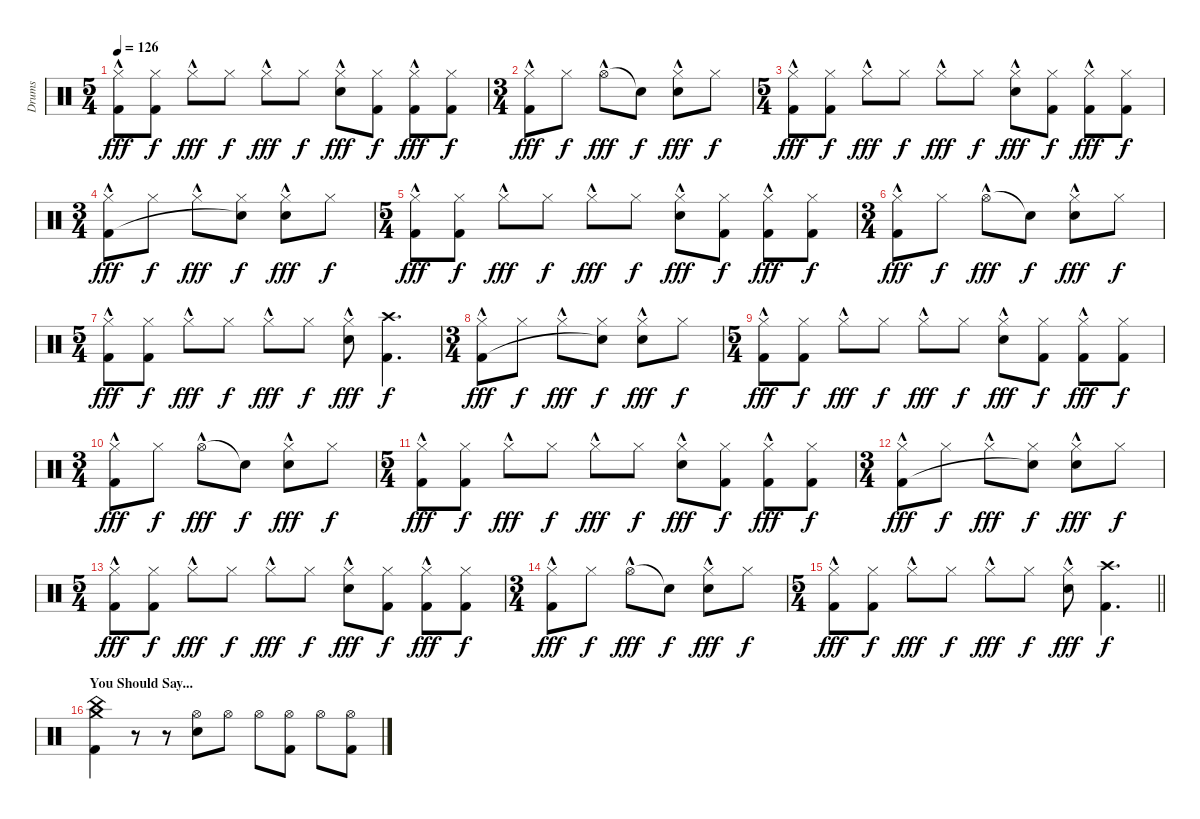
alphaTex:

\track ("Drums" "Drums") {instrument percussion}
\staff {score}
\articulation defaults
\ts (5 4)
\tempo 126
\clef neutral
\ks c
("Hi-Hat (closed)"{hac} "Kick (hit) 2").8{dy fff} ("Hi-Hat (closed)" "Kick (hit) 2").8{dy f} "Hi-Hat (closed)"{hac}.8{dy fff} "Hi-Hat (closed)".8{dy f} "Hi-Hat (closed)"{hac}.8{dy fff} "Hi-Hat (closed)".8{dy f} ("Hi-Hat (closed)"{hac} "Snare (hit) 2"{hac}).8{dy fff} ("Hi-Hat (closed)" "Kick (hit) 2").8{dy f} ("Hi-Hat (closed)"{hac} "Kick (hit) 2").8{dy fff} ("Hi-Hat (closed)" "Kick (hit) 2").8{dy f} |
\ts (3 4)
("Hi-Hat (closed)"{hac} "Kick (hit) 2").8{dy fff} "Hi-Hat (closed)".8{dy f} "Hi-Hat (open)"{hac}.8{dy fff} "Snare (hit)"{t}.8{dy f} ("Hi-Hat (closed)"{hac} "Snare (hit) 2"{hac}).8{dy fff} "Hi-Hat (closed)".8{dy f} |
\ts (5 4)
("Hi-Hat (closed)"{hac} "Kick (hit) 2").8{dy fff} ("Hi-Hat (closed)" "Kick (hit) 2").8{dy f} "Hi-Hat (closed)"{hac}.8{dy fff} "Hi-Hat (closed)".8{dy f} "Hi-Hat (closed)"{hac}.8{dy fff} "Hi-Hat (closed)".8{dy f} ("Hi-Hat (closed)"{hac} "Snare (hit) 2"{hac}).8{dy fff} ("Hi-Hat (closed)" "Kick (hit) 2").8{dy f} ("Hi-Hat (closed)"{hac} "Kick (hit) 2").8{dy fff} ("Hi-Hat (closed)" "Kick (hit) 2").8{dy f} |
\ts (3 4)
("Hi-Hat (closed)"{hac} "Kick (hit) 2").8{dy fff} "Hi-Hat (closed)".8{dy f} "Hi-Hat (closed)"{hac}.8{dy fff} ("Hi-Hat (closed)" "Snare (hit)"{t}).8{dy f} ("Hi-Hat (closed)"{hac} "Snare (hit) 2"{hac}).8{dy fff} "Hi-Hat (closed)".8{dy f} |
\ts (5 4)
("Hi-Hat (closed)"{hac} "Kick (hit) 2").8{dy fff} ("Hi-Hat (closed)" "Kick (hit) 2").8{dy f} "Hi-Hat (closed)"{hac}.8{dy fff} "Hi-Hat (closed)".8{dy f} "Hi-Hat (closed)"{hac}.8{dy fff} "Hi-Hat (closed)".8{dy f} ("Hi-Hat (closed)"{hac} "Snare (hit) 2"{hac}).8{dy fff} ("Hi-Hat (closed)" "Kick (hit) 2").8{dy f} ("Hi-Hat (closed)"{hac} "Kick (hit) 2").8{dy fff} ("Hi-Hat (closed)" "Kick (hit) 2").8{dy f} |
\ts (3 4)
("Hi-Hat (closed)"{hac} "Kick (hit) 2").8{dy fff} "Hi-Hat (closed)".8{dy f} "Hi-Hat (open)"{hac}.8{dy fff} "Snare (hit)"{t}.8{dy f} ("Hi-Hat (closed)"{hac} "Snare (hit) 2"{hac}).8{dy fff} "Hi-Hat (closed)".8{dy f} |
\ts (5 4)
("Hi-Hat (closed)"{hac} "Kick (hit) 2").8{dy fff} ("Hi-Hat (closed)" "Kick (hit) 2").8{dy f} "Hi-Hat (closed)"{hac}.8{dy fff} "Hi-Hat (closed)".8{dy f} "Hi-Hat (closed)"{hac}.8{dy fff} "Hi-Hat (closed)".8{dy f} ("Hi-Hat (closed)"{hac} "Snare (hit) 2"{hac}).8{dy fff} ("Crash high (hit)" "Kick (hit) 2").4{d dy f} |
\ts (3 4)
("Hi-Hat (closed)"{hac} "Kick (hit) 2").8{dy fff} "Hi-Hat (closed)".8{dy f} "Hi-Hat (closed)"{hac}.8{dy fff} ("Hi-Hat (closed)" "Snare (hit)"{t}).8{dy f} ("Hi-Hat (closed)"{hac} "Snare (hit) 2"{hac}).8{dy fff} "Hi-Hat (closed)".8{dy f} |
\ts (5 4)
("Hi-Hat (closed)"{hac} "Kick (hit) 2").8{dy fff} ("Hi-Hat (closed)" "Kick (hit) 2").8{dy f} "Hi-Hat (closed)"{hac}.8{dy fff} "Hi-Hat (closed)".8{dy f} "Hi-Hat (closed)"{hac}.8{dy fff} "Hi-Hat (closed)".8{dy f} ("Hi-Hat (closed)"{hac} "Snare (hit) 2"{hac}).8{dy fff} ("Hi-Hat (closed)" "Kick (hit) 2").8{dy f} ("Hi-Hat (closed)"{hac} "Kick (hit) 2").8{dy fff} ("Hi-Hat (closed)" "Kick (hit) 2").8{dy f} |
\ts (3 4)
("Hi-Hat (closed)"{hac} "Kick (hit) 2").8{dy fff} "Hi-Hat (closed)".8{dy f} "Hi-Hat (open)"{hac}.8{dy fff} "Snare (hit)"{t}.8{dy f} ("Hi-Hat (closed)"{hac} "Snare (hit) 2"{hac}).8{dy fff} "Hi-Hat (closed)".8{dy f} |
\ts (5 4)
("Hi-Hat (closed)"{hac} "Kick (hit) 2").8{dy fff} ("Hi-Hat (closed)" "Kick (hit) 2").8{dy f} "Hi-Hat (closed)"{hac}.8{dy fff} "Hi-Hat (closed)".8{dy f} "Hi-Hat (closed)"{hac}.8{dy fff} "Hi-Hat (closed)".8{dy f} ("Hi-Hat (closed)"{hac} "Snare (hit) 2"{hac}).8{dy fff} ("Hi-Hat (closed)" "Kick (hit) 2").8{dy f} ("Hi-Hat (closed)"{hac} "Kick (hit) 2").8{dy fff} ("Hi-Hat (closed)" "Kick (hit) 2").8{dy f} |
\ts (3 4)
("Hi-Hat (closed)"{hac} "Kick (hit) 2").8{dy fff} "Hi-Hat (closed)".8{dy f} "Hi-Hat (closed)"{hac}.8{dy fff} ("Hi-Hat (closed)" "Snare (hit)"{t}).8{dy f} ("Hi-Hat (closed)"{hac} "Snare (hit) 2"{hac}).8{dy fff} "Hi-Hat (closed)".8{dy f} |
\ts (5 4)
("Hi-Hat (closed)"{hac} "Kick (hit) 2").8{dy fff} ("Hi-Hat (closed)" "Kick (hit) 2").8{dy f} "Hi-Hat (closed)"{hac}.8{dy fff} "Hi-Hat (closed)".8{dy f} "Hi-Hat (closed)"{hac}.8{dy fff} "Hi-Hat (closed)".8{dy f} ("Hi-Hat (closed)"{hac} "Snare (hit) 2"{hac}).8{dy fff} ("Hi-Hat (closed)" "Kick (hit) 2").8{dy f} ("Hi-Hat (closed)"{hac} "Kick (hit) 2").8{dy fff} ("Hi-Hat (closed)" "Kick (hit) 2").8{dy f} |
\ts (3 4)
("Hi-Hat (closed)"{hac} "Kick (hit) 2").8{dy fff} "Hi-Hat (closed)".8{dy f} "Hi-Hat (open)"{hac}.8{dy fff} "Snare (hit)"{t}.8{dy f} ("Hi-Hat (closed)"{hac} "Snare (hit) 2"{hac}).8{dy fff} "Hi-Hat (closed)".8{dy f} |
\ts (5 4)
\barLineRight lightlight
("Hi-Hat (closed)"{hac} "Kick (hit) 2").8{dy fff} ("Hi-Hat (closed)" "Kick (hit) 2").8{dy f} "Hi-Hat (closed)"{hac}.8{dy fff} "Hi-Hat (closed)".8{dy f} "Hi-Hat (closed)"{hac}.8{dy fff} "Hi-Hat (closed)".8{dy f} ("Hi-Hat (closed)"{hac} "Snare (hit) 2"{hac}).8{dy fff} ("Crash high (hit)" "Kick (hit) 2").4{d dy f} |
\section ("" "You Should Say...")
("China (hit)" "Crash medium (hit)" "Kick (hit) 2").4 r.8 r.8 ("Hi-Hat (open)" "Snare (hit) 2").8 "Hi-Hat (open)".8 "Hi-Hat (open)".8 ("Hi-Hat (open)" "Kick (hit) 2").8 "Hi-Hat (open)".8 ("Hi-Hat (open)" "Kick (hit) 2").8
